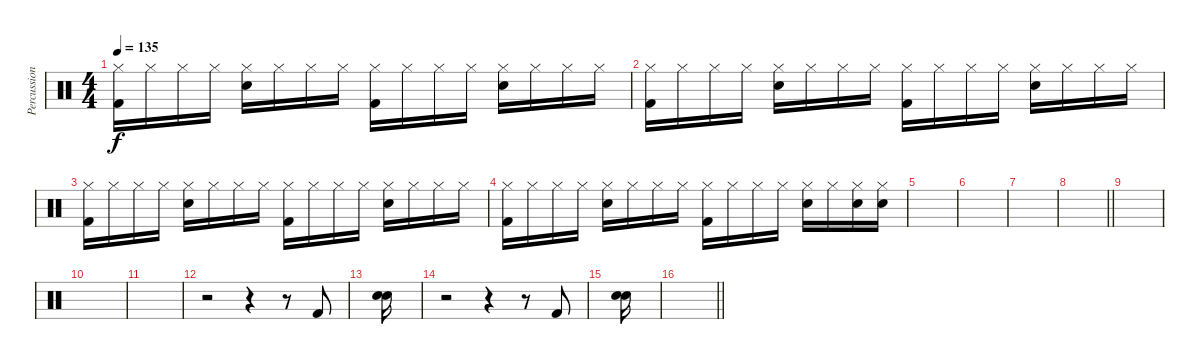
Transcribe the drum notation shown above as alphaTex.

\track ("Percussion" "Percussion") {instrument percussion}
\staff {score}
\articulation defaults
\ts (4 4)
\section ("" "")
\tempo 135
\clef neutral
\ks c
("Hi-Hat (closed)" "Kick (hit) 2").16{dy f} "Hi-Hat (closed)".16 "Hi-Hat (closed)".16 "Hi-Hat (closed)".16 ("Hi-Hat (closed)" "Snare (hit) 2").16 "Hi-Hat (closed)".16 "Hi-Hat (closed)".16 "Hi-Hat (closed)".16 ("Hi-Hat (closed)" "Kick (hit) 2").16 "Hi-Hat (closed)".16 "Hi-Hat (closed)".16 "Hi-Hat (closed)".16 ("Hi-Hat (closed)" "Snare (hit) 2").16 "Hi-Hat (closed)".16 "Hi-Hat (closed)".16 "Hi-Hat (closed)".16 |
("Hi-Hat (closed)" "Kick (hit) 2").16 "Hi-Hat (closed)".16 "Hi-Hat (closed)".16 "Hi-Hat (closed)".16 ("Hi-Hat (closed)" "Snare (hit) 2").16 "Hi-Hat (closed)".16 "Hi-Hat (closed)".16 "Hi-Hat (closed)".16 ("Hi-Hat (closed)" "Kick (hit) 2").16 "Hi-Hat (closed)".16 "Hi-Hat (closed)".16 "Hi-Hat (closed)".16 ("Hi-Hat (closed)" "Snare (hit) 2").16 "Hi-Hat (closed)".16 "Hi-Hat (closed)".16 "Hi-Hat (closed)".16 |
("Hi-Hat (closed)" "Kick (hit) 2").16 "Hi-Hat (closed)".16 "Hi-Hat (closed)".16 "Hi-Hat (closed)".16 ("Hi-Hat (closed)" "Snare (hit) 2").16 "Hi-Hat (closed)".16 "Hi-Hat (closed)".16 "Hi-Hat (closed)".16 ("Hi-Hat (closed)" "Kick (hit) 2").16 "Hi-Hat (closed)".16 "Hi-Hat (closed)".16 "Hi-Hat (closed)".16 ("Hi-Hat (closed)" "Snare (hit) 2").16 "Hi-Hat (closed)".16 "Hi-Hat (closed)".16 "Hi-Hat (closed)".16 |
("Hi-Hat (closed)" "Kick (hit) 2").16 "Hi-Hat (closed)".16 "Hi-Hat (closed)".16 "Hi-Hat (closed)".16 ("Hi-Hat (closed)" "Snare (hit) 2").16 "Hi-Hat (closed)".16 "Hi-Hat (closed)".16 "Hi-Hat (closed)".16 ("Hi-Hat (closed)" "Kick (hit) 2").16 "Hi-Hat (closed)".16 "Hi-Hat (closed)".16 "Hi-Hat (closed)".16 ("Hi-Hat (closed)" "Snare (hit) 2").16 "Hi-Hat (closed)".16 ("Hi-Hat (closed)" "Snare (hit) 2").16 ("Hi-Hat (closed)" "Snare (hit) 2").16 |
|
|
|
\barLineRight lightlight
|
\section ("" "")
|
|
|
r.2 r.4 r.8 "Kick (hit) 2".8 |
("Snare (hit) 2" "Electric Snare (hit)").16{bd 480} |
r.2 r.4 r.8 "Kick (hit) 2".8 |
("Snare (hit) 2" "Electric Snare (hit)").16{bd 480} |
\barLineRight lightlight
